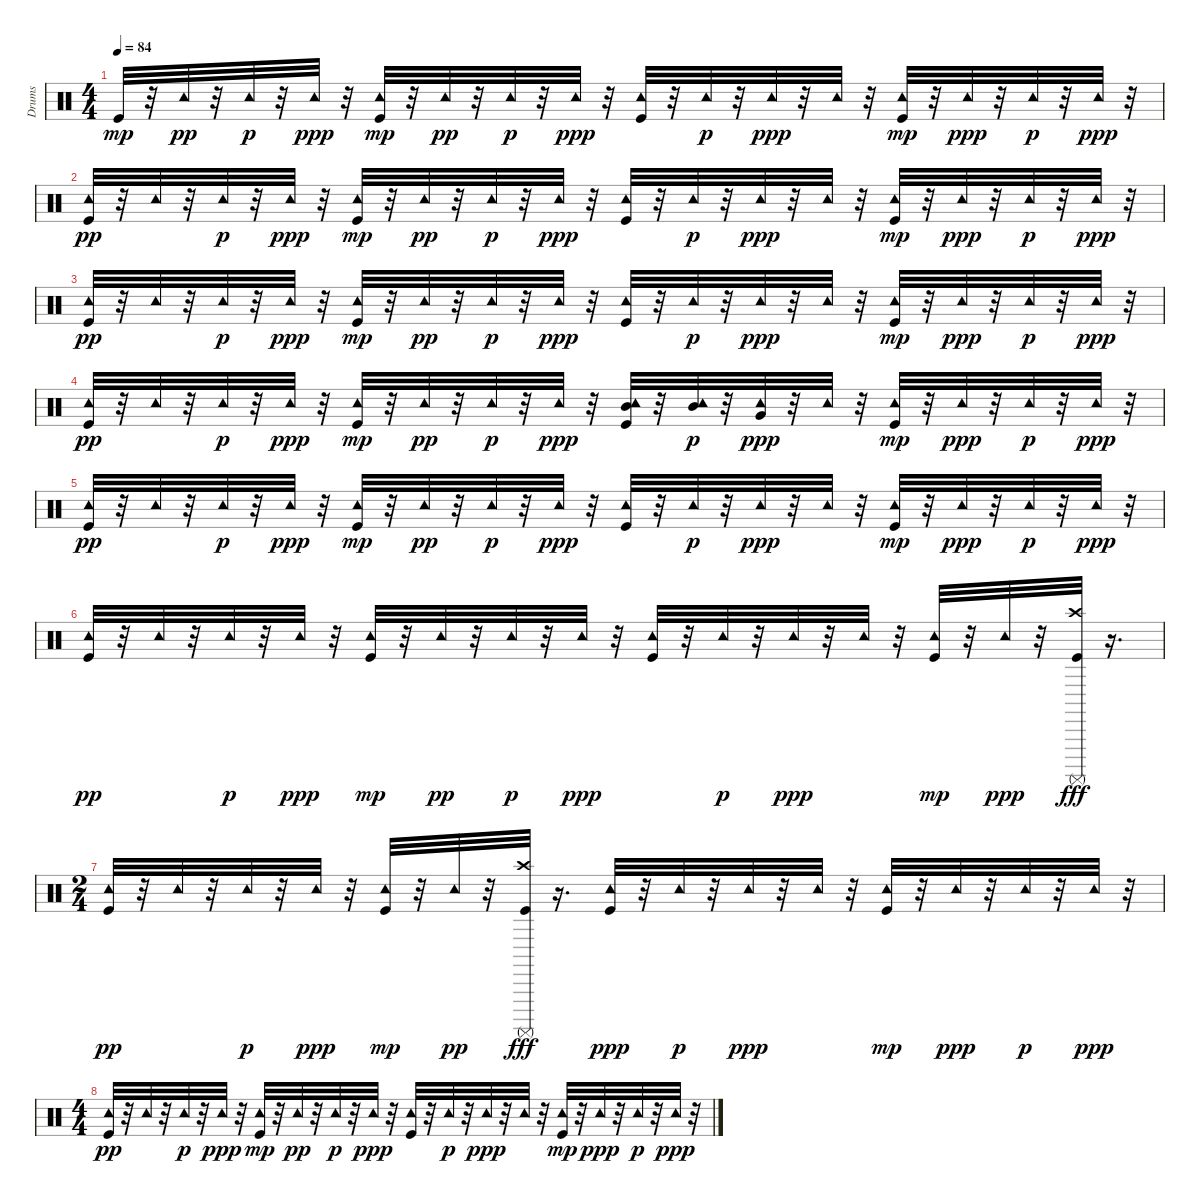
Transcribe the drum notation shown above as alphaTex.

\track ("Drums" "Drums") {instrument percussion}
\staff {score}
\articulation defaults
\ts (4 4)
\tempo 84
\clef neutral
\ks c "Kick (hit)".32{dy mp}
r.32 "Tambourine (hit)".32{dy pp} r.32 "Tambourine (hit)".32{dy p} r.32 "Tambourine (hit)".32{dy ppp} r.32 ("Kick (hit)" "Tambourine (hit)").32{dy mp} r.32 "Tambourine (hit)".32{dy pp} r.32 "Tambourine (hit)".32{dy p} r.32 "Tambourine (hit)".32{dy ppp} r.32 ("Kick (hit)" "Tambourine (hit)").32 r.32 "Tambourine (hit)".32{dy p} r.32 "Tambourine (hit)".32{dy ppp} r.32 "Tambourine (hit)".32 r.32 ("Kick (hit)" "Tambourine (hit)").32{dy mp} r.32 "Tambourine (hit)".32{dy ppp} r.32 "Tambourine (hit)".32{dy p} r.32 "Tambourine (hit)".32{dy ppp} r.32 |
("Kick (hit)" "Tambourine (hit)").32{dy pp} r.32 "Tambourine (hit)".32 r.32 "Tambourine (hit)".32{dy p} r.32 "Tambourine (hit)".32{dy ppp} r.32 ("Kick (hit)" "Tambourine (hit)").32{dy mp} r.32 "Tambourine (hit)".32{dy pp} r.32 "Tambourine (hit)".32{dy p} r.32 "Tambourine (hit)".32{dy ppp} r.32 ("Kick (hit)" "Tambourine (hit)").32 r.32 "Tambourine (hit)".32{dy p} r.32 "Tambourine (hit)".32{dy ppp} r.32 "Tambourine (hit)".32 r.32 ("Kick (hit)" "Tambourine (hit)").32{dy mp} r.32 "Tambourine (hit)".32{dy ppp} r.32 "Tambourine (hit)".32{dy p} r.32 "Tambourine (hit)".32{dy ppp} r.32 |
("Kick (hit)" "Tambourine (hit)").32{dy pp} r.32 "Tambourine (hit)".32 r.32 "Tambourine (hit)".32{dy p} r.32 "Tambourine (hit)".32{dy ppp} r.32 ("Kick (hit)" "Tambourine (hit)").32{dy mp} r.32 "Tambourine (hit)".32{dy pp} r.32 "Tambourine (hit)".32{dy p} r.32 "Tambourine (hit)".32{dy ppp} r.32 ("Kick (hit)" "Tambourine (hit)").32 r.32 "Tambourine (hit)".32{dy p} r.32 "Tambourine (hit)".32{dy ppp} r.32 "Tambourine (hit)".32 r.32 ("Kick (hit)" "Tambourine (hit)").32{dy mp} r.32 "Tambourine (hit)".32{dy ppp} r.32 "Tambourine (hit)".32{dy p} r.32 "Tambourine (hit)".32{dy ppp} r.32 |
("Kick (hit)" "Tambourine (hit)").32{dy pp} r.32 "Tambourine (hit)".32 r.32 "Tambourine (hit)".32{dy p} r.32 "Tambourine (hit)".32{dy ppp} r.32 ("Kick (hit)" "Tambourine (hit)").32{dy mp} r.32 "Tambourine (hit)".32{dy pp} r.32 "Tambourine (hit)".32{dy p} r.32 "Tambourine (hit)".32{dy ppp} r.32 ("Mid Tom (hit)" "Kick (hit)" "Tambourine (hit)").32 r.32 ("Mid Tom (hit)" "Tambourine (hit)").32{dy p} r.32 ("Very Low Tom (hit)" "Tambourine (hit)").32{dy ppp} r.32 "Tambourine (hit)".32 r.32 ("Kick (hit)" "Tambourine (hit)").32{dy mp} r.32 "Tambourine (hit)".32{dy ppp} r.32 "Tambourine (hit)".32{dy p} r.32 "Tambourine (hit)".32{dy ppp} r.32 |
("Kick (hit)" "Tambourine (hit)").32{dy pp} r.32 "Tambourine (hit)".32 r.32 "Tambourine (hit)".32{dy p} r.32 "Tambourine (hit)".32{dy ppp} r.32 ("Kick (hit)" "Tambourine (hit)").32{dy mp} r.32 "Tambourine (hit)".32{dy pp} r.32 "Tambourine (hit)".32{dy p} r.32 "Tambourine (hit)".32{dy ppp} r.32 ("Kick (hit)" "Tambourine (hit)").32 r.32 "Tambourine (hit)".32{dy p} r.32 "Tambourine (hit)".32{dy ppp} r.32 "Tambourine (hit)".32 r.32 ("Kick (hit)" "Tambourine (hit)").32{dy mp} r.32 "Tambourine (hit)".32{dy ppp} r.32 "Tambourine (hit)".32{dy p} r.32 "Tambourine (hit)".32{dy ppp} r.32 |
("Kick (hit)" "Tambourine (hit)").32{dy pp} r.32 "Tambourine (hit)".32 r.32 "Tambourine (hit)".32{dy p} r.32 "Tambourine (hit)".32{dy ppp} r.32 ("Kick (hit)" "Tambourine (hit)").32{dy mp} r.32 "Tambourine (hit)".32{dy pp} r.32 "Tambourine (hit)".32{dy p} r.32 "Tambourine (hit)".32{dy ppp} r.32 ("Kick (hit)" "Tambourine (hit)").32 r.32 "Tambourine (hit)".32{dy p} r.32 "Tambourine (hit)".32{dy ppp} r.32 "Tambourine (hit)".32 r.32 ("Kick (hit)" "Tambourine (hit)").32{dy mp} r.32 "Tambourine (hit)".32{dy ppp} r.32 ("Crash high (hit)" "Kick (hit)" "Surdo (mute)").32{dy fff} r.16{d} |
\ts (2 4)
("Kick (hit)" "Tambourine (hit)").32{dy pp} r.32 "Tambourine (hit)".32 r.32 "Tambourine (hit)".32{dy p} r.32 "Tambourine (hit)".32{dy ppp} r.32 ("Kick (hit)" "Tambourine (hit)").32{dy mp} r.32 "Tambourine (hit)".32{dy pp} r.32 ("Surdo (mute)" "Kick (hit)" "Crash high (hit)").32{dy fff} r.16{d} ("Kick (hit)" "Tambourine (hit)").32{dy ppp} r.32 "Tambourine (hit)".32{dy p} r.32 "Tambourine (hit)".32{dy ppp} r.32 "Tambourine (hit)".32 r.32 ("Kick (hit)" "Tambourine (hit)").32{dy mp} r.32 "Tambourine (hit)".32{dy ppp} r.32 "Tambourine (hit)".32{dy p} r.32 "Tambourine (hit)".32{dy ppp} r.32 |
\ts (4 4)
("Kick (hit)" "Tambourine (hit)").32{dy pp} r.32 "Tambourine (hit)".32 r.32 "Tambourine (hit)".32{dy p} r.32 "Tambourine (hit)".32{dy ppp} r.32 ("Kick (hit)" "Tambourine (hit)").32{dy mp} r.32 "Tambourine (hit)".32{dy pp} r.32 "Tambourine (hit)".32{dy p} r.32 "Tambourine (hit)".32{dy ppp} r.32 ("Kick (hit)" "Tambourine (hit)").32 r.32 "Tambourine (hit)".32{dy p} r.32 "Tambourine (hit)".32{dy ppp} r.32 "Tambourine (hit)".32 r.32 ("Kick (hit)" "Tambourine (hit)").32{dy mp} r.32 "Tambourine (hit)".32{dy ppp} r.32 "Tambourine (hit)".32{dy p} r.32 "Tambourine (hit)".32{dy ppp} r.32
